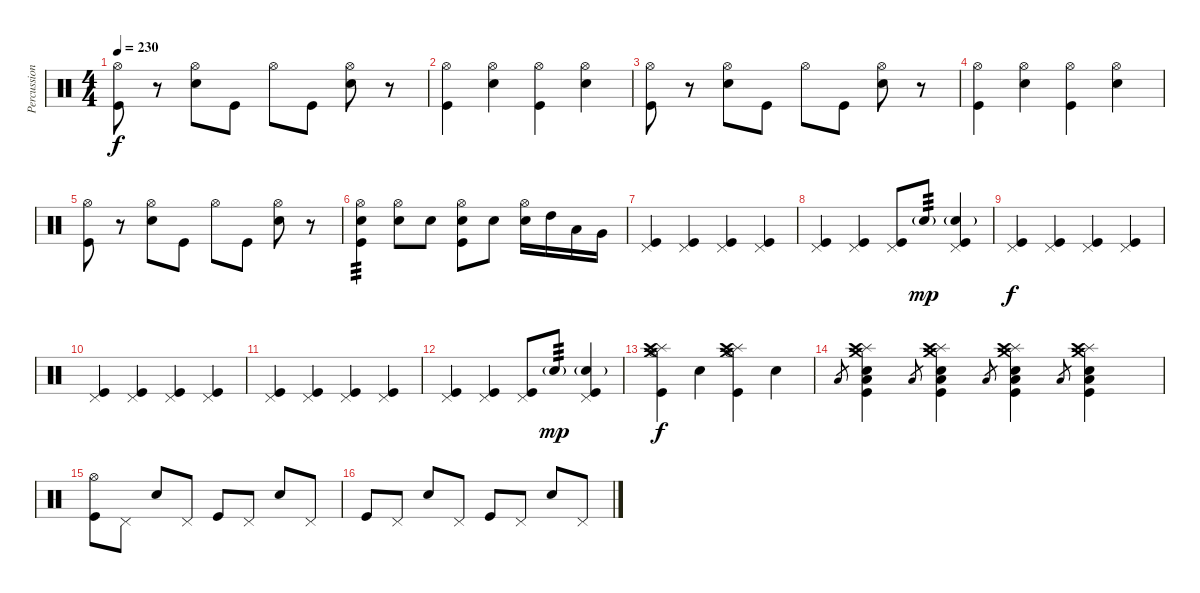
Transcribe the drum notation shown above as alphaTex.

\track ("Percussion" "Percussion") {instrument percussion}
\staff
\articulation defaults
\ts (4 4)
\tempo 230
\clef neutral
\ks c
("Hi-Hat (open)" "Kick (hit)").8{dy f} r.8 ("Hi-Hat (open)" "Electric Snare (hit)").8 "Kick (hit)".8 "Hi-Hat (open)".8 "Kick (hit)".8 ("Hi-Hat (open)" "Electric Snare (hit)").8 r.8 |
("Hi-Hat (open)" "Kick (hit)").4 ("Hi-Hat (open)" "Electric Snare (hit)").4 ("Hi-Hat (open)" "Kick (hit)").4 ("Hi-Hat (open)" "Electric Snare (hit)").4 |
("Hi-Hat (open)" "Kick (hit)").8 r.8 ("Hi-Hat (open)" "Electric Snare (hit)").8 "Kick (hit)".8 "Hi-Hat (open)".8 "Kick (hit)".8 ("Hi-Hat (open)" "Electric Snare (hit)").8 r.8 |
("Hi-Hat (open)" "Kick (hit)").4 ("Hi-Hat (open)" "Electric Snare (hit)").4 ("Hi-Hat (open)" "Kick (hit)").4 ("Hi-Hat (open)" "Electric Snare (hit)").4 |
("Hi-Hat (open)" "Kick (hit)").8 r.8 ("Hi-Hat (open)" "Electric Snare (hit)").8 "Kick (hit)".8 "Hi-Hat (open)".8 "Kick (hit)".8 ("Hi-Hat (open)" "Electric Snare (hit)").8 r.8 |
("Hi-Hat (open)" "Electric Snare (hit)" "Kick (hit)").4{tp 3} ("Hi-Hat (open)" "Electric Snare (hit)").8 "Electric Snare (hit)".8 ("Hi-Hat (open)" "Electric Snare (hit)" "Kick (hit)").8 "Electric Snare (hit)".8 ("Hi-Hat (open)" "Electric Snare (hit)").16 "High Tom (hit)".16 "Low Tom (hit)".16 "Very Low Tom (hit)".16 |
("Pedal Hi-Hat (hit)" "Kick (hit)").4 ("Pedal Hi-Hat (hit)" "Kick (hit)").4 ("Pedal Hi-Hat (hit)" "Kick (hit)").4 ("Pedal Hi-Hat (hit)" "Kick (hit)").4 |
("Pedal Hi-Hat (hit)" "Kick (hit)").4 ("Pedal Hi-Hat (hit)" "Kick (hit)").4 ("Pedal Hi-Hat (hit)" "Kick (hit)").8 "Electric Snare (hit)"{g}.8{tp 3 dy mp} ("Pedal Hi-Hat (hit)" "Electric Snare (hit)"{g} "Kick (hit)").4 |
("Pedal Hi-Hat (hit)" "Kick (hit)").4{dy f} ("Pedal Hi-Hat (hit)" "Kick (hit)").4 ("Pedal Hi-Hat (hit)" "Kick (hit)").4 ("Pedal Hi-Hat (hit)" "Kick (hit)").4 |
("Pedal Hi-Hat (hit)" "Kick (hit)").4 ("Pedal Hi-Hat (hit)" "Kick (hit)").4 ("Pedal Hi-Hat (hit)" "Kick (hit)").4 ("Pedal Hi-Hat (hit)" "Kick (hit)").4 |
("Pedal Hi-Hat (hit)" "Kick (hit)").4 ("Pedal Hi-Hat (hit)" "Kick (hit)").4 ("Pedal Hi-Hat (hit)" "Kick (hit)").4 ("Pedal Hi-Hat (hit)" "Kick (hit)").4 |
("Pedal Hi-Hat (hit)" "Kick (hit)").4 ("Pedal Hi-Hat (hit)" "Kick (hit)").4 ("Pedal Hi-Hat (hit)" "Kick (hit)").8 "Electric Snare (hit)"{g}.8{tp 3 dy mp} ("Pedal Hi-Hat (hit)" "Electric Snare (hit)"{g} "Kick (hit)").4 |
("Crash medium (hit)" "Splash (hit)" "Crash high (hit)" "Hi-Hat (open)" "Kick (hit)").4{dy f} "Electric Snare (hit)".4 ("Crash medium (hit)" "Splash (hit)" "Crash high (hit)" "Hi-Hat (open)" "Kick (hit)").4 "Electric Snare (hit)".4 |
"Low Tom (hit)".8{gr} ("Crash medium (hit)" "Splash (hit)" "Crash high (hit)" "Electric Snare (hit)" "Low Tom (hit)" "Kick (hit)").4 "Low Tom (hit)".8{gr} ("Crash medium (hit)" "Splash (hit)" "Crash high (hit)" "Electric Snare (hit)" "Low Tom (hit)" "Kick (hit)").4 "Low Tom (hit)".8{gr} ("Crash medium (hit)" "Splash (hit)" "Crash high (hit)" "Electric Snare (hit)" "Low Tom (hit)" "Kick (hit)").4 "Low Tom (hit)".8{gr} ("Crash medium (hit)" "Splash (hit)" "Crash high (hit)" "Electric Snare (hit)" "Low Tom (hit)" "Kick (hit)").4 |
("Hi-Hat (open)" "Kick (hit)").8 "Pedal Hi-Hat (hit)".8 "Electric Snare (hit)".8 "Pedal Hi-Hat (hit)".8 "Kick (hit)".8 "Pedal Hi-Hat (hit)".8 "Electric Snare (hit)".8 "Pedal Hi-Hat (hit)".8 |
"Kick (hit)".8 "Pedal Hi-Hat (hit)".8 "Electric Snare (hit)".8 "Pedal Hi-Hat (hit)".8 "Kick (hit)".8 "Pedal Hi-Hat (hit)".8 "Electric Snare (hit)".8 "Pedal Hi-Hat (hit)".8
